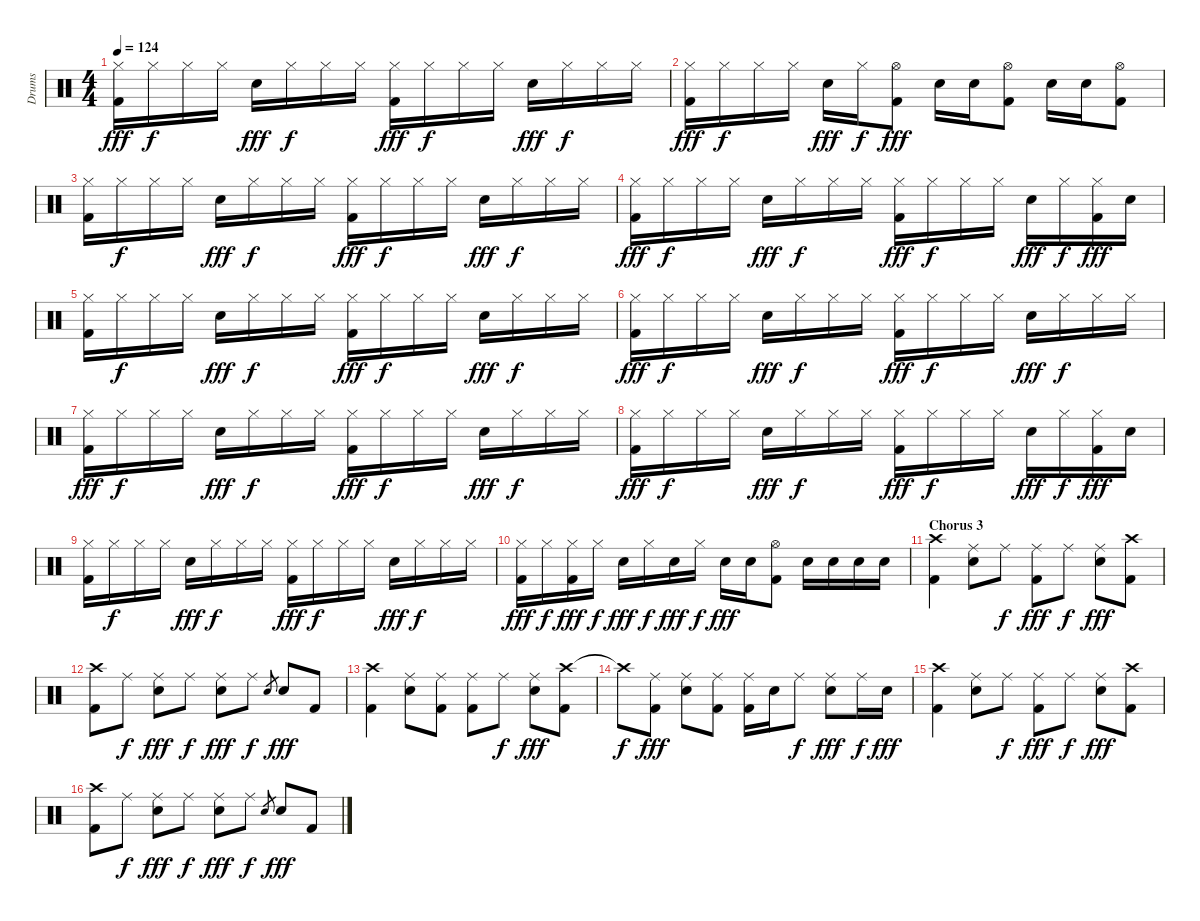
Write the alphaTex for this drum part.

\track ("Drums" "Drums") {instrument percussion}
\staff {score}
\articulation defaults
\ts (4 4)
\tempo 124
\clef neutral
\ks c
("Hi-Hat (closed)" "Kick (hit) 2").16{dy fff} "Hi-Hat (closed)".16{dy f} "Hi-Hat (closed)".16 "Hi-Hat (closed)".16 "Electric Snare (hit)".16{dy fff} "Hi-Hat (closed)".16{dy f} "Hi-Hat (closed)".16 "Hi-Hat (closed)".16 ("Hi-Hat (closed)" "Kick (hit) 2").16{dy fff} "Hi-Hat (closed)".16{dy f} "Hi-Hat (closed)".16 "Hi-Hat (closed)".16 "Electric Snare (hit)".16{dy fff} "Hi-Hat (closed)".16{dy f} "Hi-Hat (closed)".16 "Hi-Hat (closed)".16 |
("Hi-Hat (closed)" "Kick (hit) 2").16{dy fff} "Hi-Hat (closed)".16{dy f} "Hi-Hat (closed)".16 "Hi-Hat (closed)".16 "Electric Snare (hit)".16{dy fff} "Hi-Hat (closed)".16{dy f} ("Hi-Hat (open)" "Kick (hit) 2").8{dy fff} "Electric Snare (hit)".16 "Electric Snare (hit)".16 ("Hi-Hat (open)" "Kick (hit) 2").8 "Electric Snare (hit)".16 "Electric Snare (hit)".16 ("Hi-Hat (open)" "Kick (hit) 2").8 |
("Hi-Hat (closed)" "Kick (hit) 2").16 "Hi-Hat (closed)".16{dy f} "Hi-Hat (closed)".16 "Hi-Hat (closed)".16 "Electric Snare (hit)".16{dy fff} "Hi-Hat (closed)".16{dy f} "Hi-Hat (closed)".16 "Hi-Hat (closed)".16 ("Hi-Hat (closed)" "Kick (hit) 2").16{dy fff} "Hi-Hat (closed)".16{dy f} "Hi-Hat (closed)".16 "Hi-Hat (closed)".16 "Electric Snare (hit)".16{dy fff} "Hi-Hat (closed)".16{dy f} "Hi-Hat (closed)".16 "Hi-Hat (closed)".16 |
("Hi-Hat (closed)" "Kick (hit) 2").16{dy fff} "Hi-Hat (closed)".16{dy f} "Hi-Hat (closed)".16 "Hi-Hat (closed)".16 "Electric Snare (hit)".16{dy fff} "Hi-Hat (closed)".16{dy f} "Hi-Hat (closed)".16 "Hi-Hat (closed)".16 ("Hi-Hat (closed)" "Kick (hit) 2").16{dy fff} "Hi-Hat (closed)".16{dy f} "Hi-Hat (closed)".16 "Hi-Hat (closed)".16 "Electric Snare (hit)".16{dy fff} "Hi-Hat (closed)".16{dy f} ("Hi-Hat (closed)" "Kick (hit) 2").16{dy fff} "Electric Snare (hit)".16 |
("Hi-Hat (closed)" "Kick (hit) 2").16 "Hi-Hat (closed)".16{dy f} "Hi-Hat (closed)".16 "Hi-Hat (closed)".16 "Electric Snare (hit)".16{dy fff} "Hi-Hat (closed)".16{dy f} "Hi-Hat (closed)".16 "Hi-Hat (closed)".16 ("Hi-Hat (closed)" "Kick (hit) 2").16{dy fff} "Hi-Hat (closed)".16{dy f} "Hi-Hat (closed)".16 "Hi-Hat (closed)".16 "Electric Snare (hit)".16{dy fff} "Hi-Hat (closed)".16{dy f} "Hi-Hat (closed)".16 "Hi-Hat (closed)".16 |
("Hi-Hat (closed)" "Kick (hit) 2").16{dy fff} "Hi-Hat (closed)".16{dy f} "Hi-Hat (closed)".16 "Hi-Hat (closed)".16 "Electric Snare (hit)".16{dy fff} "Hi-Hat (closed)".16{dy f} "Hi-Hat (closed)".16 "Hi-Hat (closed)".16 ("Hi-Hat (closed)" "Kick (hit) 2").16{dy fff} "Hi-Hat (closed)".16{dy f} "Hi-Hat (closed)".16 "Hi-Hat (closed)".16 "Electric Snare (hit)".16{dy fff} "Hi-Hat (closed)".16{dy f} "Hi-Hat (closed)".16 "Hi-Hat (closed)".16 |
("Hi-Hat (closed)" "Kick (hit) 2").16{dy fff} "Hi-Hat (closed)".16{dy f} "Hi-Hat (closed)".16 "Hi-Hat (closed)".16 "Electric Snare (hit)".16{dy fff} "Hi-Hat (closed)".16{dy f} "Hi-Hat (closed)".16 "Hi-Hat (closed)".16 ("Hi-Hat (closed)" "Kick (hit) 2").16{dy fff} "Hi-Hat (closed)".16{dy f} "Hi-Hat (closed)".16 "Hi-Hat (closed)".16 "Electric Snare (hit)".16{dy fff} "Hi-Hat (closed)".16{dy f} "Hi-Hat (closed)".16 "Hi-Hat (closed)".16 |
("Hi-Hat (closed)" "Kick (hit) 2").16{dy fff} "Hi-Hat (closed)".16{dy f} "Hi-Hat (closed)".16 "Hi-Hat (closed)".16 "Electric Snare (hit)".16{dy fff} "Hi-Hat (closed)".16{dy f} "Hi-Hat (closed)".16 "Hi-Hat (closed)".16 ("Hi-Hat (closed)" "Kick (hit) 2").16{dy fff} "Hi-Hat (closed)".16{dy f} "Hi-Hat (closed)".16 "Hi-Hat (closed)".16 "Electric Snare (hit)".16{dy fff} "Hi-Hat (closed)".16{dy f} ("Hi-Hat (closed)" "Kick (hit) 2").16{dy fff} "Electric Snare (hit)".16 |
("Hi-Hat (closed)" "Kick (hit) 2").16 "Hi-Hat (closed)".16{dy f} "Hi-Hat (closed)".16 "Hi-Hat (closed)".16 "Electric Snare (hit)".16{dy fff} "Hi-Hat (closed)".16{dy f} "Hi-Hat (closed)".16 "Hi-Hat (closed)".16 ("Hi-Hat (closed)" "Kick (hit) 2").16{dy fff} "Hi-Hat (closed)".16{dy f} "Hi-Hat (closed)".16 "Hi-Hat (closed)".16 "Electric Snare (hit)".16{dy fff} "Hi-Hat (closed)".16{dy f} "Hi-Hat (closed)".16 "Hi-Hat (closed)".16 |
("Hi-Hat (closed)" "Kick (hit) 2").16{dy fff} "Hi-Hat (closed)".16{dy f} ("Hi-Hat (closed)" "Kick (hit) 2").16{dy fff} "Hi-Hat (closed)".16{dy f} "Electric Snare (hit)".16{dy fff} "Hi-Hat (closed)".16{dy f} "Electric Snare (hit)".16{dy fff} "Hi-Hat (closed)".16{dy f} "Electric Snare (hit)".16{dy fff} "Electric Snare (hit)".16 ("Hi-Hat (open)" "Kick (hit) 2").8 "Electric Snare (hit)".16 "Electric Snare (hit)".16 "Electric Snare (hit)".16 "Electric Snare (hit)".16 |
\section ("" "Chorus 3")
("Crash high (hit)" "Kick (hit) 2").4 ("Ride (middle)" "Electric Snare (hit)").8 "Ride (middle)".8{dy f} ("Ride (middle)" "Kick (hit) 2").8{dy fff} "Ride (middle)".8{dy f} ("Ride (middle)" "Electric Snare (hit)").8{dy fff} ("Crash high (hit)" "Kick (hit) 2").8 |
("Crash high (hit)" "Kick (hit) 2").8 "Ride (middle)".8{dy f} ("Ride (middle)" "Electric Snare (hit)").8{dy fff} "Ride (middle)".8{dy f} ("Ride (middle)" "Electric Snare (hit)").8{dy fff} "Ride (middle)".8{dy f} "Electric Snare (hit)".8{gr} "Electric Snare (hit)".8{dy fff} "Kick (hit) 2".8 |
("Crash high (hit)" "Kick (hit) 2").4 ("Ride (middle)" "Electric Snare (hit)").8 ("Ride (middle)" "Kick (hit) 2").8 ("Ride (middle)" "Kick (hit) 2").8 "Ride (middle)".8{dy f} ("Ride (middle)" "Electric Snare (hit)").8{dy fff} ("Crash high (hit)" "Kick (hit) 2").8 |
"Crash high (hit)"{t}.8{dy f} ("Ride (middle)" "Kick (hit) 2").8{dy fff} ("Ride (middle)" "Electric Snare (hit)").8 ("Ride (middle)" "Kick (hit) 2").8 ("Ride (middle)" "Kick (hit) 2").16 "Electric Snare (hit)".16 "Ride (middle)".8{dy f} ("Ride (middle)" "Electric Snare (hit)").8{dy fff} "Ride (middle)".16{dy f} "Electric Snare (hit)".16{dy fff} |
("Crash high (hit)" "Kick (hit) 2").4 ("Ride (middle)" "Electric Snare (hit)").8 "Ride (middle)".8{dy f} ("Ride (middle)" "Kick (hit) 2").8{dy fff} "Ride (middle)".8{dy f} ("Ride (middle)" "Electric Snare (hit)").8{dy fff} ("Crash high (hit)" "Kick (hit) 2").8 |
("Crash high (hit)" "Kick (hit) 2").8 "Ride (middle)".8{dy f} ("Ride (middle)" "Electric Snare (hit)").8{dy fff} "Ride (middle)".8{dy f} ("Ride (middle)" "Electric Snare (hit)").8{dy fff} "Ride (middle)".8{dy f} "Electric Snare (hit)".8{gr} "Electric Snare (hit)".8{dy fff} "Kick (hit) 2".8
